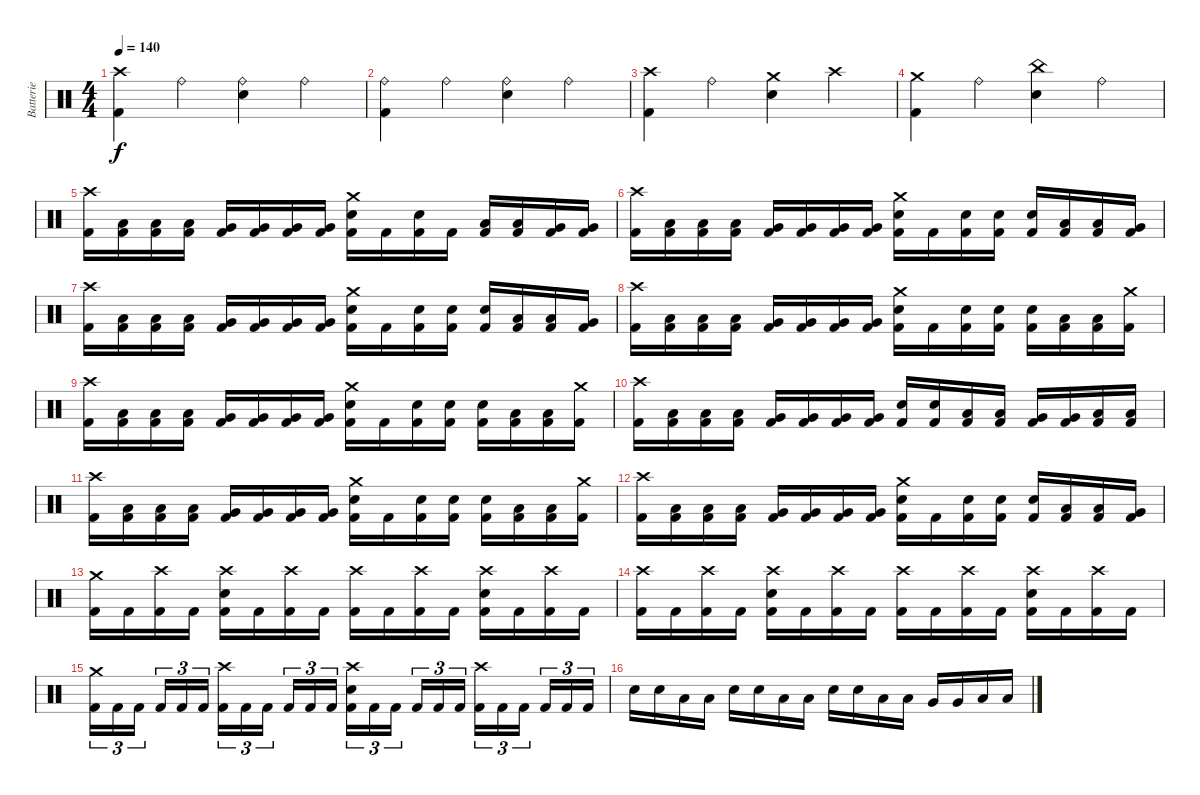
\track ("Batterie" "Batterie") {instrument percussion}
\staff {score}
\articulation defaults
\ts (4 4)
\tempo 140
\clef neutral
\ks c
("Crash high (hit)" "Kick (hit) 2").4{dy f} "Ride (bell)".4 ("Ride (bell)" "Electric Snare (hit)").4 "Ride (bell)".4 |
("Ride (bell)" "Kick (hit) 2").4 "Ride (bell)".4 ("Ride (bell)" "Electric Snare (hit)").4 "Ride (bell)".4 |
("Crash high (hit)" "Kick (hit) 2").4 "Ride (bell)".4 ("Crash medium (hit)" "Electric Snare (hit)").4 "Crash high (hit)".4 |
("Crash medium (hit)" "Kick (hit) 2").4 "Ride (bell)".4 ("China (hit)" "Electric Snare (hit)").4 "Ride (bell)".4 |
("Crash high (hit)" "Kick (hit) 2").16 ("Low Tom (hit)" "Kick (hit) 2").16 ("Low Tom (hit)" "Kick (hit) 2").16 ("Low Tom (hit)" "Kick (hit) 2").16 ("Very Low Tom (hit)" "Kick (hit) 2").16 ("Very Low Tom (hit)" "Kick (hit) 2").16 ("Very Low Tom (hit)" "Kick (hit) 2").16 ("Very Low Tom (hit)" "Kick (hit) 2").16 ("Crash medium (hit)" "Electric Snare (hit)" "Kick (hit) 2").16 "Kick (hit) 2".16 ("Electric Snare (hit)" "Kick (hit) 2").16 "Kick (hit) 2".16 ("Low Tom (hit)" "Kick (hit) 2").16 ("Low Tom (hit)" "Kick (hit) 2").16 ("Very Low Tom (hit)" "Kick (hit) 2").16 ("Very Low Tom (hit)" "Kick (hit) 2").16 |
("Crash high (hit)" "Kick (hit) 2").16 ("Low Tom (hit)" "Kick (hit) 2").16 ("Low Tom (hit)" "Kick (hit) 2").16 ("Low Tom (hit)" "Kick (hit) 2").16 ("Very Low Tom (hit)" "Kick (hit) 2").16 ("Very Low Tom (hit)" "Kick (hit) 2").16 ("Very Low Tom (hit)" "Kick (hit) 2").16 ("Very Low Tom (hit)" "Kick (hit) 2").16 ("Crash medium (hit)" "Electric Snare (hit)" "Kick (hit) 2").16 "Kick (hit) 2".16 ("Electric Snare (hit)" "Kick (hit) 2").16 ("Electric Snare (hit)" "Kick (hit) 2").16 ("Electric Snare (hit)" "Kick (hit) 2").16 ("Low Tom (hit)" "Kick (hit) 2").16 ("Low Tom (hit)" "Kick (hit) 2").16 ("Very Low Tom (hit)" "Kick (hit) 2").16 |
("Crash high (hit)" "Kick (hit) 2").16 ("Low Tom (hit)" "Kick (hit) 2").16 ("Low Tom (hit)" "Kick (hit) 2").16 ("Low Tom (hit)" "Kick (hit) 2").16 ("Very Low Tom (hit)" "Kick (hit) 2").16 ("Very Low Tom (hit)" "Kick (hit) 2").16 ("Very Low Tom (hit)" "Kick (hit) 2").16 ("Very Low Tom (hit)" "Kick (hit) 2").16 ("Crash medium (hit)" "Electric Snare (hit)" "Kick (hit) 2").16 "Kick (hit) 2".16 ("Electric Snare (hit)" "Kick (hit) 2").16 ("Electric Snare (hit)" "Kick (hit) 2").16 ("Electric Snare (hit)" "Kick (hit) 2").16 ("Low Tom (hit)" "Kick (hit) 2").16 ("Low Tom (hit)" "Kick (hit) 2").16 ("Very Low Tom (hit)" "Kick (hit) 2").16 |
("Crash high (hit)" "Kick (hit) 2").16 ("Low Tom (hit)" "Kick (hit) 2").16 ("Low Tom (hit)" "Kick (hit) 2").16 ("Low Tom (hit)" "Kick (hit) 2").16 ("Very Low Tom (hit)" "Kick (hit) 2").16 ("Very Low Tom (hit)" "Kick (hit) 2").16 ("Very Low Tom (hit)" "Kick (hit) 2").16 ("Very Low Tom (hit)" "Kick (hit) 2").16 ("Crash medium (hit)" "Electric Snare (hit)" "Kick (hit) 2").16 "Kick (hit) 2".16 ("Electric Snare (hit)" "Kick (hit) 2").16 ("Electric Snare (hit)" "Kick (hit) 2").16 ("Electric Snare (hit)" "Kick (hit) 2").16 ("Low Tom (hit)" "Kick (hit) 2").16 ("Low Tom (hit)" "Kick (hit) 2").16 ("Crash medium (hit)" "Kick (hit) 2").16 |
("Crash high (hit)" "Kick (hit) 2").16 ("Low Tom (hit)" "Kick (hit) 2").16 ("Low Tom (hit)" "Kick (hit) 2").16 ("Low Tom (hit)" "Kick (hit) 2").16 ("Very Low Tom (hit)" "Kick (hit) 2").16 ("Very Low Tom (hit)" "Kick (hit) 2").16 ("Very Low Tom (hit)" "Kick (hit) 2").16 ("Very Low Tom (hit)" "Kick (hit) 2").16 ("Crash medium (hit)" "Electric Snare (hit)" "Kick (hit) 2").16 "Kick (hit) 2".16 ("Electric Snare (hit)" "Kick (hit) 2").16 ("Electric Snare (hit)" "Kick (hit) 2").16 ("Electric Snare (hit)" "Kick (hit) 2").16 ("Low Tom (hit)" "Kick (hit) 2").16 ("Low Tom (hit)" "Kick (hit) 2").16 ("Crash medium (hit)" "Kick (hit) 2").16 |
("Crash high (hit)" "Kick (hit) 2").16 ("Low Tom (hit)" "Kick (hit) 2").16 ("Low Tom (hit)" "Kick (hit) 2").16 ("Low Tom (hit)" "Kick (hit) 2").16 ("Very Low Tom (hit)" "Kick (hit) 2").16 ("Very Low Tom (hit)" "Kick (hit) 2").16 ("Very Low Tom (hit)" "Kick (hit) 2").16 ("Very Low Tom (hit)" "Kick (hit) 2").16 ("Electric Snare (hit)" "Kick (hit) 2").16 ("Electric Snare (hit)" "Kick (hit) 2").16 ("Low Tom (hit)" "Kick (hit) 2").16 ("Low Tom (hit)" "Kick (hit) 2").16 ("Very Low Tom (hit)" "Kick (hit) 2").16 ("Very Low Tom (hit)" "Kick (hit) 2").16 ("Low Floor Tom (hit)" "Kick (hit) 2").16 ("Low Floor Tom (hit)" "Kick (hit) 2").16 |
("Crash high (hit)" "Kick (hit) 2").16 ("Low Tom (hit)" "Kick (hit) 2").16 ("Low Tom (hit)" "Kick (hit) 2").16 ("Low Tom (hit)" "Kick (hit) 2").16 ("Very Low Tom (hit)" "Kick (hit) 2").16 ("Very Low Tom (hit)" "Kick (hit) 2").16 ("Very Low Tom (hit)" "Kick (hit) 2").16 ("Very Low Tom (hit)" "Kick (hit) 2").16 ("Crash medium (hit)" "Electric Snare (hit)" "Kick (hit) 2").16 "Kick (hit) 2".16 ("Electric Snare (hit)" "Kick (hit) 2").16 ("Electric Snare (hit)" "Kick (hit) 2").16 ("Electric Snare (hit)" "Kick (hit) 2").16 ("Low Tom (hit)" "Kick (hit) 2").16 ("Low Tom (hit)" "Kick (hit) 2").16 ("Crash medium (hit)" "Kick (hit) 2").16 |
("Crash high (hit)" "Kick (hit) 2").16 ("Low Tom (hit)" "Kick (hit) 2").16 ("Low Tom (hit)" "Kick (hit) 2").16 ("Low Tom (hit)" "Kick (hit) 2").16 ("Very Low Tom (hit)" "Kick (hit) 2").16 ("Very Low Tom (hit)" "Kick (hit) 2").16 ("Very Low Tom (hit)" "Kick (hit) 2").16 ("Very Low Tom (hit)" "Kick (hit) 2").16 ("Crash medium (hit)" "Electric Snare (hit)" "Kick (hit) 2").16 "Kick (hit) 2".16 ("Electric Snare (hit)" "Kick (hit) 2").16 ("Electric Snare (hit)" "Kick (hit) 2").16 ("Electric Snare (hit)" "Kick (hit) 2").16 ("Low Tom (hit)" "Kick (hit) 2").16 ("Low Tom (hit)" "Kick (hit) 2").16 ("Very Low Tom (hit)" "Kick (hit) 2").16 |
("Crash medium (hit)" "Kick (hit) 2").16 "Kick (hit) 2".16 ("Crash high (hit)" "Kick (hit) 2").16 "Kick (hit) 2".16 ("Crash high (hit)" "Electric Snare (hit)" "Kick (hit) 2").16 "Kick (hit) 2".16 ("Crash high (hit)" "Kick (hit) 2").16 "Kick (hit) 2".16 ("Crash high (hit)" "Kick (hit) 2").16 "Kick (hit) 2".16 ("Crash high (hit)" "Kick (hit) 2").16 "Kick (hit) 2".16 ("Crash high (hit)" "Electric Snare (hit)" "Kick (hit) 2").16 "Kick (hit) 2".16 ("Crash high (hit)" "Kick (hit) 2").16 "Kick (hit) 2".16 |
("Crash high (hit)" "Kick (hit) 2").16 "Kick (hit) 2".16 ("Crash high (hit)" "Kick (hit) 2").16 "Kick (hit) 2".16 ("Crash high (hit)" "Electric Snare (hit)" "Kick (hit) 2").16 "Kick (hit) 2".16 ("Crash high (hit)" "Kick (hit) 2").16 "Kick (hit) 2".16 ("Crash high (hit)" "Kick (hit) 2").16 "Kick (hit) 2".16 ("Crash high (hit)" "Kick (hit) 2").16 "Kick (hit) 2".16 ("Crash high (hit)" "Electric Snare (hit)" "Kick (hit) 2").16 "Kick (hit) 2".16 ("Crash high (hit)" "Kick (hit) 2").16 "Kick (hit) 2".16 |
("Crash medium (hit)" "Kick (hit) 2").16{tu (3 2)} "Kick (hit) 2".16{tu (3 2)} "Kick (hit) 2".16{tu (3 2) beam splitsecondary} "Kick (hit) 2".16{tu (3 2)} "Kick (hit) 2".16{tu (3 2)} "Kick (hit) 2".16{tu (3 2)} ("Crash high (hit)" "Kick (hit) 2").16{tu (3 2)} "Kick (hit) 2".16{tu (3 2)} "Kick (hit) 2".16{tu (3 2) beam splitsecondary} "Kick (hit) 2".16{tu (3 2)} "Kick (hit) 2".16{tu (3 2)} "Kick (hit) 2".16{tu (3 2)} ("Crash high (hit)" "Electric Snare (hit)" "Kick (hit) 2").16{tu (3 2)} "Kick (hit) 2".16{tu (3 2)} "Kick (hit) 2".16{tu (3 2) beam splitsecondary} "Kick (hit) 2".16{tu (3 2)} "Kick (hit) 2".16{tu (3 2)} "Kick (hit) 2".16{tu (3 2)} ("Crash high (hit)" "Kick (hit) 2").16{tu (3 2)} "Kick (hit) 2".16{tu (3 2)} "Kick (hit) 2".16{tu (3 2) beam splitsecondary} "Kick (hit) 2".16{tu (3 2)} "Kick (hit) 2".16{tu (3 2)} "Kick (hit) 2".16{tu (3 2)} |
"Electric Snare (hit)".16 "Electric Snare (hit)".16 "Low Tom (hit)".16 "Low Tom (hit)".16 "Electric Snare (hit)".16 "Electric Snare (hit)".16 "Low Tom (hit)".16 "Low Tom (hit)".16 "Electric Snare (hit)".16 "Electric Snare (hit)".16 "Low Tom (hit)".16 "Low Tom (hit)".16 "Very Low Tom (hit)".16 "Very Low Tom (hit)".16 "Low Floor Tom (hit)".16 "Low Floor Tom (hit)".16
